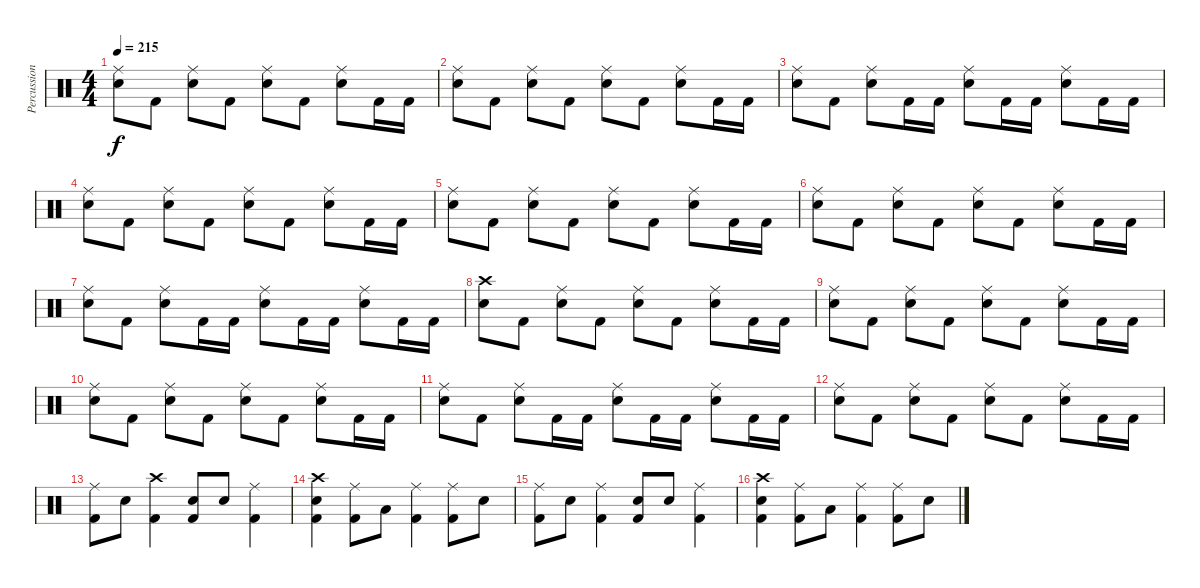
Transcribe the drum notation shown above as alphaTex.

\track ("Percussion" "Percussion") {instrument percussion}
\staff {score}
\articulation defaults
\ts (4 4)
\tempo 215
\clef neutral
\ks aminor
("Ride (middle)" "Snare (hit) 2").8{dy f} "Kick (hit) 2".8 ("Ride (middle)" "Snare (hit) 2").8 "Kick (hit) 2".8 ("Ride (middle)" "Snare (hit) 2").8 "Kick (hit) 2".8 ("Ride (middle)" "Snare (hit) 2").8 "Kick (hit) 2".16 "Kick (hit) 2".16 |
("Ride (middle)" "Snare (hit) 2").8 "Kick (hit) 2".8 ("Ride (middle)" "Snare (hit) 2").8 "Kick (hit) 2".8 ("Ride (middle)" "Snare (hit) 2").8 "Kick (hit) 2".8 ("Ride (middle)" "Snare (hit) 2").8 "Kick (hit) 2".16 "Kick (hit) 2".16 |
("Ride (middle)" "Snare (hit) 2").8 "Kick (hit) 2".8 ("Ride (middle)" "Snare (hit) 2").8 "Kick (hit) 2".16 "Kick (hit) 2".16 ("Ride (middle)" "Snare (hit) 2").8 "Kick (hit) 2".16 "Kick (hit) 2".16 ("Ride (middle)" "Snare (hit) 2").8 "Kick (hit) 2".16 "Kick (hit) 2".16 |
("Ride (middle)" "Snare (hit) 2").8 "Kick (hit) 2".8 ("Ride (middle)" "Snare (hit) 2").8 "Kick (hit) 2".8 ("Ride (middle)" "Snare (hit) 2").8 "Kick (hit) 2".8 ("Ride (middle)" "Snare (hit) 2").8 "Kick (hit) 2".16 "Kick (hit) 2".16 |
("Ride (middle)" "Snare (hit) 2").8 "Kick (hit) 2".8 ("Ride (middle)" "Snare (hit) 2").8 "Kick (hit) 2".8 ("Ride (middle)" "Snare (hit) 2").8 "Kick (hit) 2".8 ("Ride (middle)" "Snare (hit) 2").8 "Kick (hit) 2".16 "Kick (hit) 2".16 |
("Ride (middle)" "Snare (hit) 2").8 "Kick (hit) 2".8 ("Ride (middle)" "Snare (hit) 2").8 "Kick (hit) 2".8 ("Ride (middle)" "Snare (hit) 2").8 "Kick (hit) 2".8 ("Ride (middle)" "Snare (hit) 2").8 "Kick (hit) 2".16 "Kick (hit) 2".16 |
("Ride (middle)" "Snare (hit) 2").8 "Kick (hit) 2".8 ("Ride (middle)" "Snare (hit) 2").8 "Kick (hit) 2".16 "Kick (hit) 2".16 ("Ride (middle)" "Snare (hit) 2").8 "Kick (hit) 2".16 "Kick (hit) 2".16 ("Ride (middle)" "Snare (hit) 2").8 "Kick (hit) 2".16 "Kick (hit) 2".16 |
("Crash high (hit)" "Snare (hit) 2").8 "Kick (hit) 2".8 ("Ride (middle)" "Snare (hit) 2").8 "Kick (hit) 2".8 ("Ride (middle)" "Snare (hit) 2").8 "Kick (hit) 2".8 ("Ride (middle)" "Snare (hit) 2").8 "Kick (hit) 2".16 "Kick (hit) 2".16 |
("Ride (middle)" "Snare (hit) 2").8 "Kick (hit) 2".8 ("Ride (middle)" "Snare (hit) 2").8 "Kick (hit) 2".8 ("Ride (middle)" "Snare (hit) 2").8 "Kick (hit) 2".8 ("Ride (middle)" "Snare (hit) 2").8 "Kick (hit) 2".16 "Kick (hit) 2".16 |
("Ride (middle)" "Snare (hit) 2").8 "Kick (hit) 2".8 ("Ride (middle)" "Snare (hit) 2").8 "Kick (hit) 2".8 ("Ride (middle)" "Snare (hit) 2").8 "Kick (hit) 2".8 ("Ride (middle)" "Snare (hit) 2").8 "Kick (hit) 2".16 "Kick (hit) 2".16 |
("Ride (middle)" "Snare (hit) 2").8 "Kick (hit) 2".8 ("Ride (middle)" "Snare (hit) 2").8 "Kick (hit) 2".16 "Kick (hit) 2".16 ("Ride (middle)" "Snare (hit) 2").8 "Kick (hit) 2".16 "Kick (hit) 2".16 ("Ride (middle)" "Snare (hit) 2").8 "Kick (hit) 2".16 "Kick (hit) 2".16 |
("Ride (middle)" "Snare (hit) 2").8 "Kick (hit) 2".8 ("Ride (middle)" "Snare (hit) 2").8 "Kick (hit) 2".8 ("Ride (middle)" "Snare (hit) 2").8 "Kick (hit) 2".8 ("Ride (middle)" "Snare (hit) 2").8 "Kick (hit) 2".16 "Kick (hit) 2".16 |
("Ride (middle)" "Kick (hit) 2").8 "Snare (hit) 2".8 ("Crash high (hit)" "Kick (hit) 2").4 ("Snare (hit) 2" "Kick (hit) 2").8 "Snare (hit) 2".8 ("Ride (middle)" "Kick (hit) 2").4 |
("Crash high (hit)" "Snare (hit) 2" "Kick (hit) 2").4 ("Ride (middle)" "Kick (hit) 2").8 "Low Tom (hit)".8 ("Ride (middle)" "Kick (hit) 2").4 ("Ride (middle)" "Kick (hit) 2").8 "Snare (hit) 2".8 |
("Ride (middle)" "Kick (hit) 2").8 "Snare (hit) 2".8 ("Ride (middle)" "Kick (hit) 2").4 ("Snare (hit) 2" "Kick (hit) 2").8 "Snare (hit) 2".8 ("Ride (middle)" "Kick (hit) 2").4 |
("Crash high (hit)" "Snare (hit) 2" "Kick (hit) 2").4 ("Ride (middle)" "Kick (hit) 2").8 "Low Tom (hit)".8 ("Ride (middle)" "Kick (hit) 2").4 ("Ride (middle)" "Kick (hit) 2").8 "Snare (hit) 2".8
